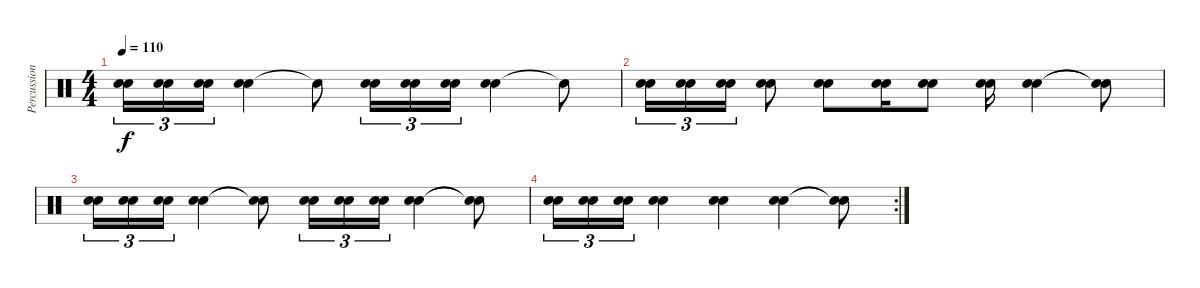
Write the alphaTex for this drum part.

\track ("Percussion" "Percussion") {instrument percussion}
\staff {score}
\articulation defaults
\ts (4 4)
\tempo 110
\clef neutral
\ks c
("Electric Snare (hit)" "Electric Snare (hit)").16{tu (3 2) dy f} ("Electric Snare (hit)" "Electric Snare (hit)").16{tu (3 2)} ("Electric Snare (hit)" "Electric Snare (hit)").16{tu (3 2)} ("Electric Snare (hit)" "Electric Snare (hit)").4 "Snare (hit)"{t}.8 ("Electric Snare (hit)" "Electric Snare (hit)").16{tu (3 2)} ("Electric Snare (hit)" "Electric Snare (hit)").16{tu (3 2)} ("Electric Snare (hit)" "Electric Snare (hit)").16{tu (3 2)} ("Electric Snare (hit)" "Electric Snare (hit)").4 "Snare (hit)"{t}.8 |
("Electric Snare (hit)" "Electric Snare (hit)").16{tu (3 2)} ("Electric Snare (hit)" "Electric Snare (hit)").16{tu (3 2)} ("Electric Snare (hit)" "Electric Snare (hit)").16{tu (3 2)} ("Electric Snare (hit)" "Electric Snare (hit)").8 ("Electric Snare (hit)" "Electric Snare (hit)").8 ("Electric Snare (hit)" "Electric Snare (hit)").16 ("Electric Snare (hit)" "Electric Snare (hit)").8 ("Electric Snare (hit)" "Electric Snare (hit)").16 ("Electric Snare (hit)" "Electric Snare (hit)").4 ("Snare (hit)"{t} "Snare (hit)"{t}).8 |
("Electric Snare (hit)" "Electric Snare (hit)").16{tu (3 2)} ("Electric Snare (hit)" "Electric Snare (hit)").16{tu (3 2)} ("Electric Snare (hit)" "Electric Snare (hit)").16{tu (3 2)} ("Electric Snare (hit)" "Electric Snare (hit)").4 ("Snare (hit)"{t} "Snare (hit)"{t}).8 ("Electric Snare (hit)" "Electric Snare (hit)").16{tu (3 2)} ("Electric Snare (hit)" "Electric Snare (hit)").16{tu (3 2)} ("Electric Snare (hit)" "Electric Snare (hit)").16{tu (3 2)} ("Electric Snare (hit)" "Electric Snare (hit)").4 ("Snare (hit)"{t} "Snare (hit)"{t}).8 |
\rc 2
("Electric Snare (hit)" "Electric Snare (hit)").16{tu (3 2)} ("Electric Snare (hit)" "Electric Snare (hit)").16{tu (3 2)} ("Electric Snare (hit)" "Electric Snare (hit)").16{tu (3 2)} ("Electric Snare (hit)" "Electric Snare (hit)").4 ("Electric Snare (hit)" "Electric Snare (hit)").4 ("Electric Snare (hit)" "Electric Snare (hit)").4 ("Snare (hit)"{t} "Snare (hit)"{t}).8
